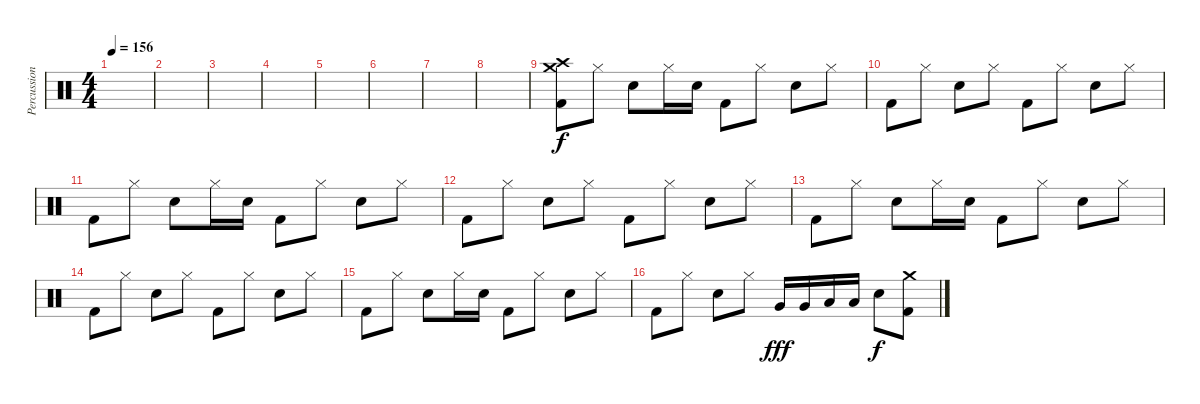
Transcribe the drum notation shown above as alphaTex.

\track ("Percussion" "Percussion") {instrument percussion}
\staff {score}
\articulation defaults
\ts (4 4)
\tempo 156
\clef neutral
\ks c
|
|
|
|
|
|
|
|
("Crash high (hit)" "Crash medium (hit)" "Kick (hit) 2").8 "Hi-Hat (closed)".8 "Electric Snare (hit)".8 "Hi-Hat (closed)".16 "Electric Snare (hit)".16 "Kick (hit) 2".8 "Hi-Hat (closed)".8 "Electric Snare (hit)".8 "Hi-Hat (closed)".8 |
"Kick (hit) 2".8 "Hi-Hat (closed)".8 "Electric Snare (hit)".8 "Hi-Hat (closed)".8 "Kick (hit) 2".8 "Hi-Hat (closed)".8 "Electric Snare (hit)".8 "Hi-Hat (closed)".8 |
"Kick (hit) 2".8 "Hi-Hat (closed)".8 "Electric Snare (hit)".8 "Hi-Hat (closed)".16 "Electric Snare (hit)".16 "Kick (hit) 2".8 "Hi-Hat (closed)".8 "Electric Snare (hit)".8 "Hi-Hat (closed)".8 |
"Kick (hit) 2".8 "Hi-Hat (closed)".8 "Electric Snare (hit)".8 "Hi-Hat (closed)".8 "Kick (hit) 2".8 "Hi-Hat (closed)".8 "Electric Snare (hit)".8 "Hi-Hat (closed)".8 |
"Kick (hit) 2".8 "Hi-Hat (closed)".8 "Electric Snare (hit)".8 "Hi-Hat (closed)".16 "Electric Snare (hit)".16 "Kick (hit) 2".8 "Hi-Hat (closed)".8 "Electric Snare (hit)".8 "Hi-Hat (closed)".8 |
"Kick (hit) 2".8 "Hi-Hat (closed)".8 "Electric Snare (hit)".8 "Hi-Hat (closed)".8 "Kick (hit) 2".8 "Hi-Hat (closed)".8 "Electric Snare (hit)".8 "Hi-Hat (closed)".8 |
"Kick (hit) 2".8 "Hi-Hat (closed)".8 "Electric Snare (hit)".8 "Hi-Hat (closed)".16 "Electric Snare (hit)".16 "Kick (hit) 2".8 "Hi-Hat (closed)".8 "Electric Snare (hit)".8 "Hi-Hat (closed)".8 |
"Kick (hit) 2".8 "Hi-Hat (closed)".8 "Electric Snare (hit)".8 "Hi-Hat (closed)".8 "Very Low Tom (hit)".16{dy fff} "Very Low Tom (hit)".16 "Low Floor Tom (hit)".16 "Low Floor Tom (hit)".16 "Electric Snare (hit)".8{dy f} ("Crash medium (hit)" "Kick (hit) 2").8
